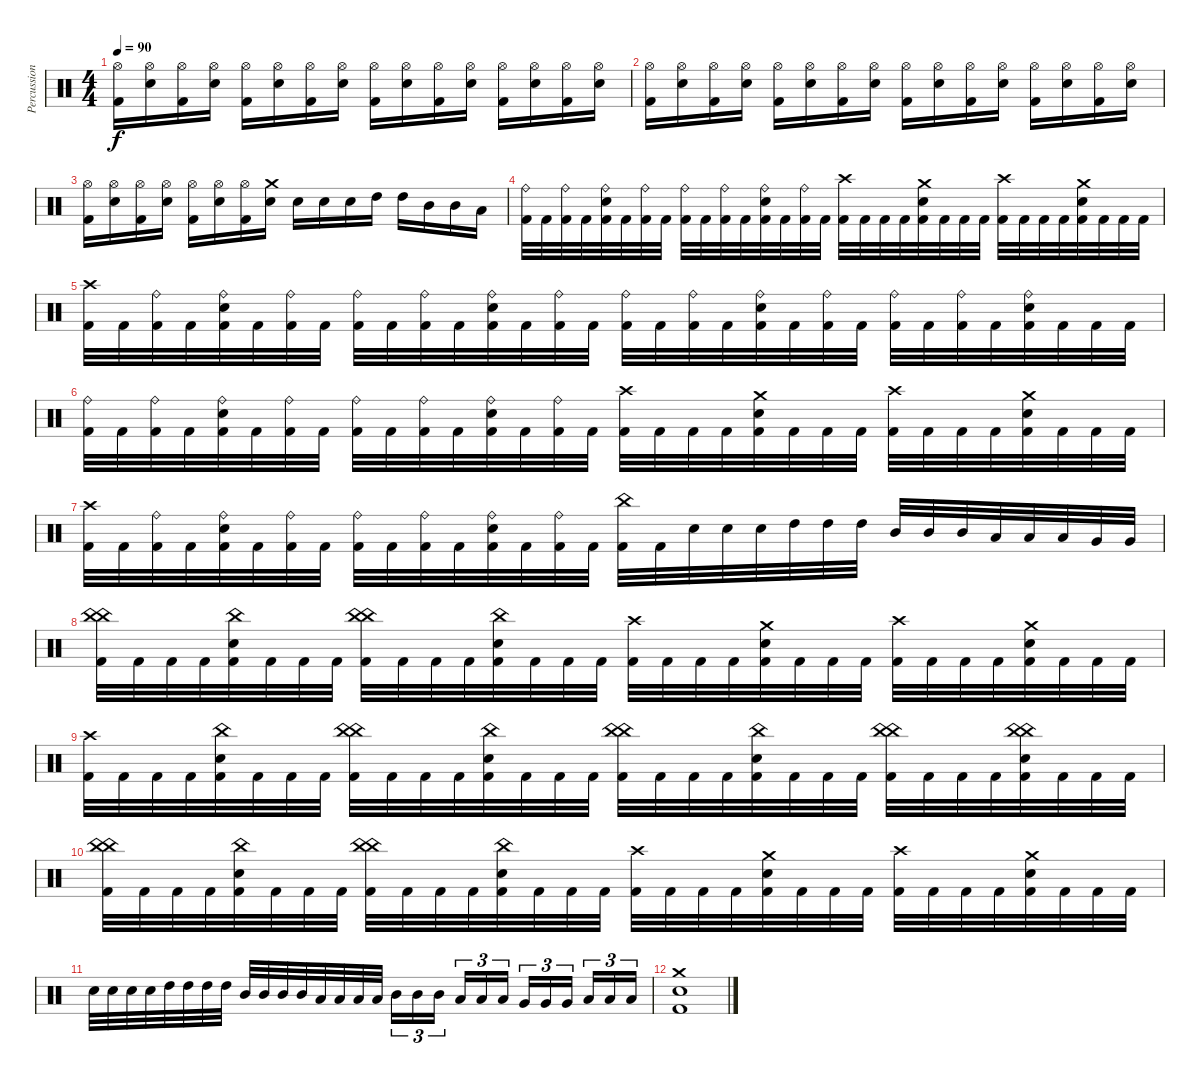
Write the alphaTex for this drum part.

\track ("Percussions" "Percussion") {instrument percussion}
\staff {score}
\articulation defaults
\ts (4 4)
\tempo 90
\clef neutral
\ks c
("Hi-Hat (open)" "Kick (hit) 2").16{dy f} ("Hi-Hat (open)" "Electric Snare (hit)").16 ("Hi-Hat (open)" "Kick (hit) 2").16 ("Hi-Hat (open)" "Electric Snare (hit)").16 ("Hi-Hat (open)" "Kick (hit) 2").16 ("Hi-Hat (open)" "Electric Snare (hit)").16 ("Hi-Hat (open)" "Kick (hit) 2").16 ("Hi-Hat (open)" "Electric Snare (hit)").16 ("Hi-Hat (open)" "Kick (hit) 2").16 ("Hi-Hat (open)" "Electric Snare (hit)").16 ("Hi-Hat (open)" "Kick (hit) 2").16 ("Hi-Hat (open)" "Electric Snare (hit)").16 ("Hi-Hat (open)" "Kick (hit) 2").16 ("Hi-Hat (open)" "Electric Snare (hit)").16 ("Hi-Hat (open)" "Kick (hit) 2").16 ("Hi-Hat (open)" "Electric Snare (hit)").16 |
("Hi-Hat (open)" "Kick (hit) 2").16 ("Hi-Hat (open)" "Electric Snare (hit)").16 ("Hi-Hat (open)" "Kick (hit) 2").16 ("Hi-Hat (open)" "Electric Snare (hit)").16 ("Hi-Hat (open)" "Kick (hit) 2").16 ("Hi-Hat (open)" "Electric Snare (hit)").16 ("Hi-Hat (open)" "Kick (hit) 2").16 ("Hi-Hat (open)" "Electric Snare (hit)").16 ("Hi-Hat (open)" "Kick (hit) 2").16 ("Hi-Hat (open)" "Electric Snare (hit)").16 ("Hi-Hat (open)" "Kick (hit) 2").16 ("Hi-Hat (open)" "Electric Snare (hit)").16 ("Hi-Hat (open)" "Kick (hit) 2").16 ("Hi-Hat (open)" "Electric Snare (hit)").16 ("Hi-Hat (open)" "Kick (hit) 2").16 ("Hi-Hat (open)" "Electric Snare (hit)").16 |
("Hi-Hat (open)" "Kick (hit) 2").16 ("Hi-Hat (open)" "Electric Snare (hit)").16 ("Hi-Hat (open)" "Kick (hit) 2").16 ("Hi-Hat (open)" "Electric Snare (hit)").16 ("Hi-Hat (open)" "Kick (hit) 2").16 ("Hi-Hat (open)" "Electric Snare (hit)").16 ("Hi-Hat (open)" "Kick (hit) 2").16 ("Crash medium (hit)" "Electric Snare (hit)").16 "Electric Snare (hit)".16 "Electric Snare (hit)".16 "Electric Snare (hit)".16 "High Tom (hit)".16 "High Tom (hit)".16 "Mid Tom (hit)".16 "Mid Tom (hit)".16 "Low Tom (hit)".16 |
("Ride (bell)" "Kick (hit) 2").32 "Kick (hit) 2".32 ("Ride (bell)" "Kick (hit) 2").32 "Kick (hit) 2".32 ("Ride (bell)" "Electric Snare (hit)" "Kick (hit) 2").32 "Kick (hit) 2".32 ("Ride (bell)" "Kick (hit) 2").32 "Kick (hit) 2".32 ("Ride (bell)" "Kick (hit) 2").32 "Kick (hit) 2".32 ("Ride (bell)" "Kick (hit) 2").32 "Kick (hit) 2".32 ("Ride (bell)" "Electric Snare (hit)" "Kick (hit) 2").32 "Kick (hit) 2".32 ("Ride (bell)" "Kick (hit) 2").32 "Kick (hit) 2".32 ("Crash high (hit)" "Kick (hit) 2").32 "Kick (hit) 2".32 "Kick (hit) 2".32 "Kick (hit) 2".32 ("Crash medium (hit)" "Electric Snare (hit)" "Kick (hit) 2").32 "Kick (hit) 2".32 "Kick (hit) 2".32 "Kick (hit) 2".32 ("Crash high (hit)" "Kick (hit) 2").32 "Kick (hit) 2".32 "Kick (hit) 2".32 "Kick (hit) 2".32 ("Crash medium (hit)" "Electric Snare (hit)" "Kick (hit) 2").32 "Kick (hit) 2".32 "Kick (hit) 2".32 "Kick (hit) 2".32 |
("Crash high (hit)" "Kick (hit) 2").32 "Kick (hit) 2".32 ("Ride (bell)" "Kick (hit) 2").32 "Kick (hit) 2".32 ("Ride (bell)" "Electric Snare (hit)" "Kick (hit) 2").32 "Kick (hit) 2".32 ("Ride (bell)" "Kick (hit) 2").32 "Kick (hit) 2".32 ("Ride (bell)" "Kick (hit) 2").32 "Kick (hit) 2".32 ("Ride (bell)" "Kick (hit) 2").32 "Kick (hit) 2".32 ("Ride (bell)" "Electric Snare (hit)" "Kick (hit) 2").32 "Kick (hit) 2".32 ("Ride (bell)" "Kick (hit) 2").32 "Kick (hit) 2".32 ("Ride (bell)" "Kick (hit) 2").32 "Kick (hit) 2".32 ("Ride (bell)" "Kick (hit) 2").32 "Kick (hit) 2".32 ("Ride (bell)" "Electric Snare (hit)" "Kick (hit) 2").32 "Kick (hit) 2".32 ("Ride (bell)" "Kick (hit) 2").32 "Kick (hit) 2".32 ("Ride (bell)" "Kick (hit) 2").32 "Kick (hit) 2".32 ("Ride (bell)" "Kick (hit) 2").32 "Kick (hit) 2".32 ("Ride (bell)" "Electric Snare (hit)" "Kick (hit) 2").32 "Kick (hit) 2".32 "Kick (hit) 2".32 "Kick (hit) 2".32 |
("Ride (bell)" "Kick (hit) 2").32 "Kick (hit) 2".32 ("Ride (bell)" "Kick (hit) 2").32 "Kick (hit) 2".32 ("Ride (bell)" "Electric Snare (hit)" "Kick (hit) 2").32 "Kick (hit) 2".32 ("Ride (bell)" "Kick (hit) 2").32 "Kick (hit) 2".32 ("Ride (bell)" "Kick (hit) 2").32 "Kick (hit) 2".32 ("Ride (bell)" "Kick (hit) 2").32 "Kick (hit) 2".32 ("Ride (bell)" "Electric Snare (hit)" "Kick (hit) 2").32 "Kick (hit) 2".32 ("Ride (bell)" "Kick (hit) 2").32 "Kick (hit) 2".32 ("Crash high (hit)" "Kick (hit) 2").32 "Kick (hit) 2".32 "Kick (hit) 2".32 "Kick (hit) 2".32 ("Crash medium (hit)" "Electric Snare (hit)" "Kick (hit) 2").32 "Kick (hit) 2".32 "Kick (hit) 2".32 "Kick (hit) 2".32 ("Crash high (hit)" "Kick (hit) 2").32 "Kick (hit) 2".32 "Kick (hit) 2".32 "Kick (hit) 2".32 ("Crash medium (hit)" "Electric Snare (hit)" "Kick (hit) 2").32 "Kick (hit) 2".32 "Kick (hit) 2".32 "Kick (hit) 2".32 |
("Crash high (hit)" "Kick (hit) 2").32 "Kick (hit) 2".32 ("Ride (bell)" "Kick (hit) 2").32 "Kick (hit) 2".32 ("Ride (bell)" "Electric Snare (hit)" "Kick (hit) 2").32 "Kick (hit) 2".32 ("Ride (bell)" "Kick (hit) 2").32 "Kick (hit) 2".32 ("Ride (bell)" "Kick (hit) 2").32 "Kick (hit) 2".32 ("Ride (bell)" "Kick (hit) 2").32 "Kick (hit) 2".32 ("Ride (bell)" "Electric Snare (hit)" "Kick (hit) 2").32 "Kick (hit) 2".32 ("Ride (bell)" "Kick (hit) 2").32 "Kick (hit) 2".32 ("China (hit)" "Kick (hit) 2").32 "Kick (hit) 2".32 "Electric Snare (hit)".32 "Electric Snare (hit)".32 "Electric Snare (hit)".32 "High Tom (hit)".32 "High Tom (hit)".32 "High Tom (hit)".32 "Mid Tom (hit)".32 "Mid Tom (hit)".32 "Mid Tom (hit)".32 "Low Tom (hit)".32 "Low Tom (hit)".32 "Low Tom (hit)".32 "Very Low Tom (hit)".32 "Very Low Tom (hit)".32 |
("China (hit)" "China (hit)" "Kick (hit) 2").32 "Kick (hit) 2".32 "Kick (hit) 2".32 "Kick (hit) 2".32 ("China (hit)" "Electric Snare (hit)" "Kick (hit) 2").32 "Kick (hit) 2".32 "Kick (hit) 2".32 "Kick (hit) 2".32 ("China (hit)" "China (hit)" "Kick (hit) 2").32 "Kick (hit) 2".32 "Kick (hit) 2".32 "Kick (hit) 2".32 ("China (hit)" "Electric Snare (hit)" "Kick (hit) 2").32 "Kick (hit) 2".32 "Kick (hit) 2".32 "Kick (hit) 2".32 ("Crash high (hit)" "Kick (hit) 2").32 "Kick (hit) 2".32 "Kick (hit) 2".32 "Kick (hit) 2".32 ("Crash medium (hit)" "Electric Snare (hit)" "Kick (hit) 2").32 "Kick (hit) 2".32 "Kick (hit) 2".32 "Kick (hit) 2".32 ("Crash high (hit)" "Kick (hit) 2").32 "Kick (hit) 2".32 "Kick (hit) 2".32 "Kick (hit) 2".32 ("Crash medium (hit)" "Electric Snare (hit)" "Kick (hit) 2").32 "Kick (hit) 2".32 "Kick (hit) 2".32 "Kick (hit) 2".32 |
("Crash high (hit)" "Kick (hit) 2").32 "Kick (hit) 2".32 "Kick (hit) 2".32 "Kick (hit) 2".32 ("China (hit)" "Electric Snare (hit)" "Kick (hit) 2").32 "Kick (hit) 2".32 "Kick (hit) 2".32 "Kick (hit) 2".32 ("China (hit)" "China (hit)" "Kick (hit) 2").32 "Kick (hit) 2".32 "Kick (hit) 2".32 "Kick (hit) 2".32 ("China (hit)" "Electric Snare (hit)" "Kick (hit) 2").32 "Kick (hit) 2".32 "Kick (hit) 2".32 "Kick (hit) 2".32 ("China (hit)" "China (hit)" "Kick (hit) 2").32 "Kick (hit) 2".32 "Kick (hit) 2".32 "Kick (hit) 2".32 ("China (hit)" "Electric Snare (hit)" "Kick (hit) 2").32 "Kick (hit) 2".32 "Kick (hit) 2".32 "Kick (hit) 2".32 ("China (hit)" "China (hit)" "Kick (hit) 2").32 "Kick (hit) 2".32 "Kick (hit) 2".32 "Kick (hit) 2".32 ("China (hit)" "China (hit)" "Electric Snare (hit)" "Kick (hit) 2").32 "Kick (hit) 2".32 "Kick (hit) 2".32 "Kick (hit) 2".32 |
("China (hit)" "China (hit)" "Kick (hit) 2").32 "Kick (hit) 2".32 "Kick (hit) 2".32 "Kick (hit) 2".32 ("China (hit)" "Electric Snare (hit)" "Kick (hit) 2").32 "Kick (hit) 2".32 "Kick (hit) 2".32 "Kick (hit) 2".32 ("China (hit)" "China (hit)" "Kick (hit) 2").32 "Kick (hit) 2".32 "Kick (hit) 2".32 "Kick (hit) 2".32 ("China (hit)" "Electric Snare (hit)" "Kick (hit) 2").32 "Kick (hit) 2".32 "Kick (hit) 2".32 "Kick (hit) 2".32 ("Crash high (hit)" "Kick (hit) 2").32 "Kick (hit) 2".32 "Kick (hit) 2".32 "Kick (hit) 2".32 ("Crash medium (hit)" "Electric Snare (hit)" "Kick (hit) 2").32 "Kick (hit) 2".32 "Kick (hit) 2".32 "Kick (hit) 2".32 ("Crash high (hit)" "Kick (hit) 2").32 "Kick (hit) 2".32 "Kick (hit) 2".32 "Kick (hit) 2".32 ("Crash medium (hit)" "Electric Snare (hit)" "Kick (hit) 2").32 "Kick (hit) 2".32 "Kick (hit) 2".32 "Kick (hit) 2".32 |
"Electric Snare (hit)".32 "Electric Snare (hit)".32 "Electric Snare (hit)".32 "Electric Snare (hit)".32 "High Tom (hit)".32 "High Tom (hit)".32 "High Tom (hit)".32 "High Tom (hit)".32 "Mid Tom (hit)".32 "Mid Tom (hit)".32 "Mid Tom (hit)".32 "Mid Tom (hit)".32 "Low Tom (hit)".32 "Low Tom (hit)".32 "Low Tom (hit)".32 "Low Tom (hit)".32 "Mid Tom (hit)".16{tu (3 2)} "Mid Tom (hit)".16{tu (3 2)} "Mid Tom (hit)".16{tu (3 2)} "Low Tom (hit)".16{tu (3 2)} "Low Tom (hit)".16{tu (3 2)} "Low Tom (hit)".16{tu (3 2)} "Very Low Tom (hit)".16{tu (3 2)} "Very Low Tom (hit)".16{tu (3 2)} "Very Low Tom (hit)".16{tu (3 2)} "Low Floor Tom (hit)".16{tu (3 2)} "Low Floor Tom (hit)".16{tu (3 2)} "Low Floor Tom (hit)".16{tu (3 2)} |
("Crash medium (hit)" "Electric Snare (hit)" "Kick (hit) 2").1
